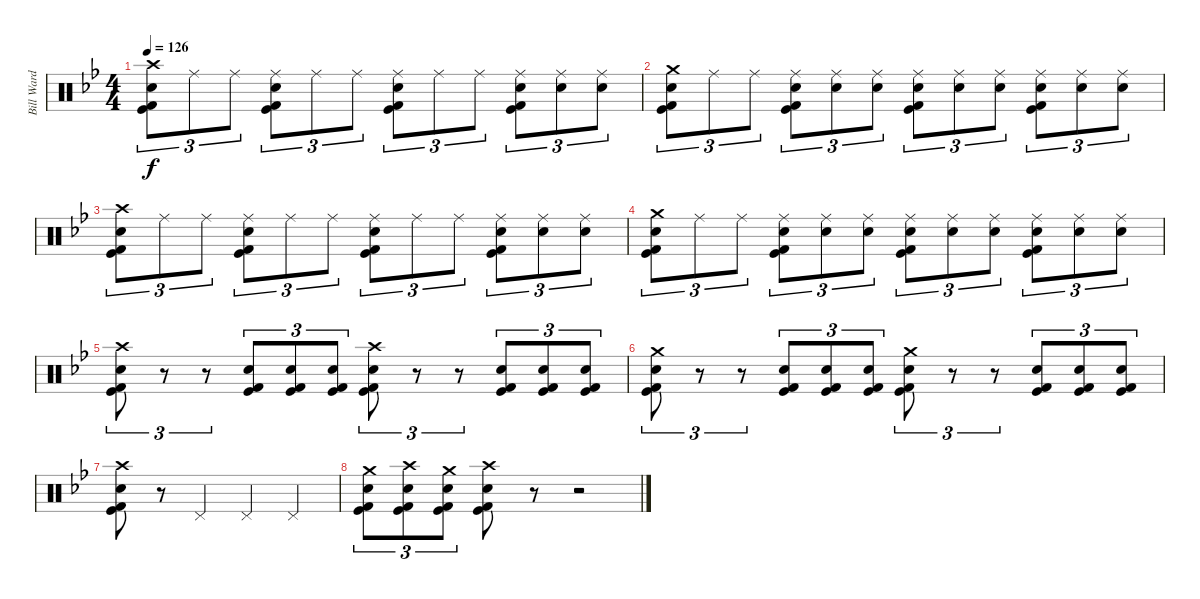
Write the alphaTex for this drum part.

\track ("Bill Ward" "Bill Ward") {instrument percussion}
\staff {score}
\articulation defaults
\ts (4 4)
\tempo 126
\clef neutral
\ks bb
("Crash high (hit)" "Snare (hit) 2" "Kick (hit) 2" "Kick (hit)").8{tu (3 2) dy f} "Ride (middle)".8{tu (3 2)} "Ride (middle)".8{tu (3 2)} ("Ride (middle)" "Snare (hit) 2" "Kick (hit) 2" "Kick (hit)").8{tu (3 2)} "Ride (middle)".8{tu (3 2)} "Ride (middle)".8{tu (3 2)} ("Ride (middle)" "Snare (hit) 2" "Kick (hit) 2" "Kick (hit)").8{tu (3 2)} "Ride (middle)".8{tu (3 2)} "Ride (middle)".8{tu (3 2)} ("Ride (middle)" "Snare (hit) 2" "Kick (hit) 2" "Kick (hit)").8{tu (3 2)} ("Ride (middle)" "Snare (hit) 2").8{tu (3 2)} ("Ride (middle)" "Snare (hit) 2").8{tu (3 2)} |
("Crash medium (hit)" "Snare (hit) 2" "Kick (hit) 2" "Kick (hit)").8{tu (3 2)} "Ride (middle)".8{tu (3 2)} "Ride (middle)".8{tu (3 2)} ("Ride (middle)" "Snare (hit) 2" "Kick (hit) 2" "Kick (hit)").8{tu (3 2)} ("Ride (middle)" "Snare (hit) 2").8{tu (3 2)} ("Ride (middle)" "Snare (hit) 2").8{tu (3 2)} ("Ride (middle)" "Snare (hit) 2" "Kick (hit) 2" "Kick (hit)").8{tu (3 2)} ("Ride (middle)" "Snare (hit) 2").8{tu (3 2)} ("Ride (middle)" "Snare (hit) 2").8{tu (3 2)} ("Ride (middle)" "Snare (hit) 2" "Kick (hit) 2" "Kick (hit)").8{tu (3 2)} ("Ride (middle)" "Snare (hit) 2").8{tu (3 2)} ("Ride (middle)" "Snare (hit) 2").8{tu (3 2)} |
("Crash high (hit)" "Snare (hit) 2" "Kick (hit) 2" "Kick (hit)").8{tu (3 2)} "Ride (middle)".8{tu (3 2)} "Ride (middle)".8{tu (3 2)} ("Ride (middle)" "Snare (hit) 2" "Kick (hit) 2" "Kick (hit)").8{tu (3 2)} "Ride (middle)".8{tu (3 2)} "Ride (middle)".8{tu (3 2)} ("Ride (middle)" "Snare (hit) 2" "Kick (hit) 2" "Kick (hit)").8{tu (3 2)} "Ride (middle)".8{tu (3 2)} "Ride (middle)".8{tu (3 2)} ("Ride (middle)" "Snare (hit) 2" "Kick (hit) 2" "Kick (hit)").8{tu (3 2)} ("Ride (middle)" "Snare (hit) 2").8{tu (3 2)} ("Ride (middle)" "Snare (hit) 2").8{tu (3 2)} |
("Crash medium (hit)" "Snare (hit) 2" "Kick (hit) 2" "Kick (hit)").8{tu (3 2)} "Ride (middle)".8{tu (3 2)} "Ride (middle)".8{tu (3 2)} ("Ride (middle)" "Snare (hit) 2" "Kick (hit) 2" "Kick (hit)").8{tu (3 2)} ("Ride (middle)" "Snare (hit) 2").8{tu (3 2)} ("Ride (middle)" "Snare (hit) 2").8{tu (3 2)} ("Ride (middle)" "Snare (hit) 2" "Kick (hit) 2" "Kick (hit)").8{tu (3 2)} ("Ride (middle)" "Snare (hit) 2").8{tu (3 2)} ("Ride (middle)" "Snare (hit) 2").8{tu (3 2)} ("Ride (middle)" "Snare (hit) 2" "Kick (hit) 2" "Kick (hit)").8{tu (3 2)} ("Ride (middle)" "Snare (hit) 2").8{tu (3 2)} ("Ride (middle)" "Snare (hit) 2").8{tu (3 2)} |
("Crash high (hit)" "Snare (hit) 2" "Kick (hit) 2" "Kick (hit)").8{tu (3 2)} r.8{tu (3 2)} r.8{tu (3 2)} ("Snare (hit) 2" "Kick (hit) 2" "Kick (hit)").8{tu (3 2)} ("Snare (hit) 2" "Kick (hit) 2" "Kick (hit)").8{tu (3 2)} ("Snare (hit) 2" "Kick (hit) 2" "Kick (hit)").8{tu (3 2)} ("Crash high (hit)" "Snare (hit) 2" "Kick (hit) 2" "Kick (hit)").8{tu (3 2)} r.8{tu (3 2)} r.8{tu (3 2)} ("Snare (hit) 2" "Kick (hit) 2" "Kick (hit)").8{tu (3 2)} ("Snare (hit) 2" "Kick (hit) 2" "Kick (hit)").8{tu (3 2)} ("Snare (hit) 2" "Kick (hit) 2" "Kick (hit)").8{tu (3 2)} |
("Crash medium (hit)" "Snare (hit) 2" "Kick (hit) 2" "Kick (hit)").8{tu (3 2)} r.8{tu (3 2)} r.8{tu (3 2)} ("Snare (hit) 2" "Kick (hit) 2" "Kick (hit)").8{tu (3 2)} ("Snare (hit) 2" "Kick (hit) 2" "Kick (hit)").8{tu (3 2)} ("Snare (hit) 2" "Kick (hit) 2" "Kick (hit)").8{tu (3 2)} ("Crash medium (hit)" "Snare (hit) 2" "Kick (hit) 2" "Kick (hit)").8{tu (3 2)} r.8{tu (3 2)} r.8{tu (3 2)} ("Snare (hit) 2" "Kick (hit) 2" "Kick (hit)").8{tu (3 2)} ("Snare (hit) 2" "Kick (hit) 2" "Kick (hit)").8{tu (3 2)} ("Snare (hit) 2" "Kick (hit) 2" "Kick (hit)").8{tu (3 2)} |
("Crash high (hit)" "Snare (hit) 2" "Kick (hit) 2" "Kick (hit)").8 r.8 "Pedal Hi-Hat (hit)".4 "Pedal Hi-Hat (hit)".4 "Pedal Hi-Hat (hit)".4 |
("Crash medium (hit)" "Snare (hit) 2" "Kick (hit) 2" "Kick (hit)").8{tu (3 2)} ("Crash high (hit)" "Snare (hit) 2" "Kick (hit) 2" "Kick (hit)").8{tu (3 2)} ("Crash medium (hit)" "Snare (hit) 2" "Kick (hit) 2" "Kick (hit)").8{tu (3 2)} ("Crash high (hit)" "Snare (hit) 2" "Kick (hit) 2" "Kick (hit)").8 r.8 r.2
